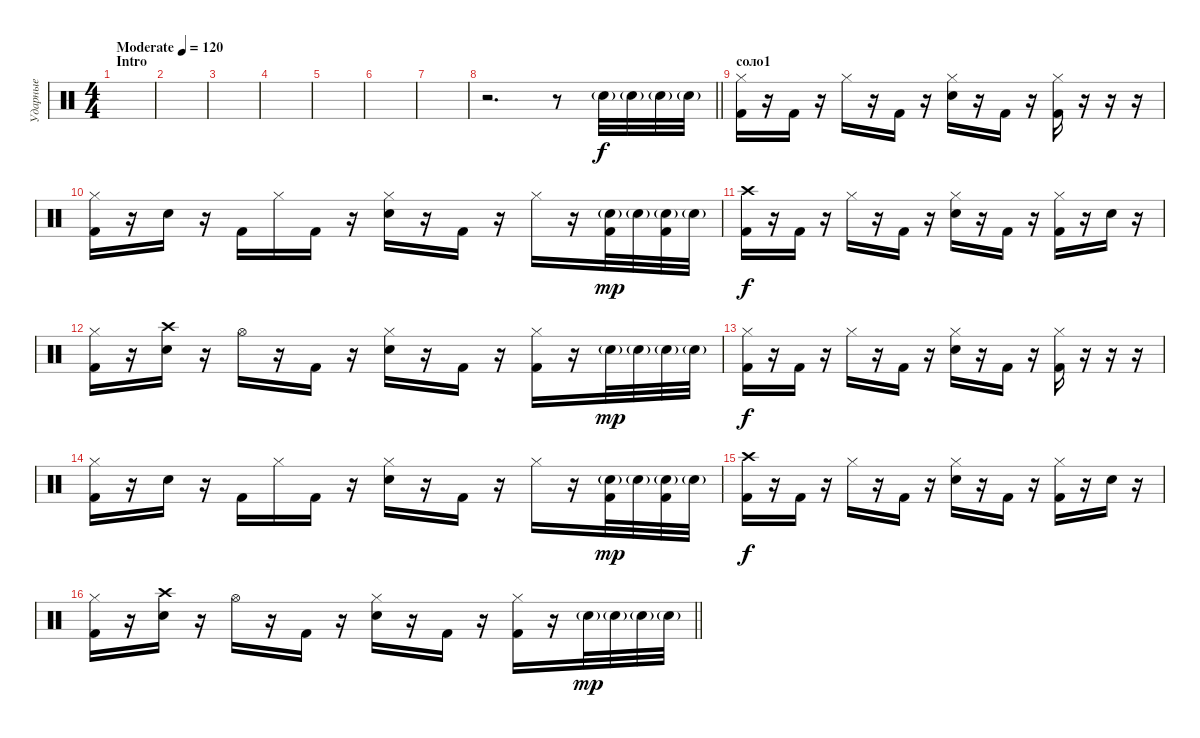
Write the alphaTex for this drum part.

\track ("Ударные" "Ударные") {instrument percussion}
\staff {score}
\articulation defaults
\ts (4 4)
\section ("" "Intro")
\tempo (120 "Moderate")
\clef neutral
\ks c
|
|
|
|
|
|
|
\barLineRight lightlight
r.2{d} r.8 "Electric Snare (hit)"{g}.32 "Electric Snare (hit)"{g}.32 "Electric Snare (hit)"{g}.32 "Electric Snare (hit)"{g}.32 |
\section ("" "соло1")
("Hi-Hat (closed)" "Kick (hit) 2").16{dy f} r.16 "Kick (hit) 2".16 r.16 "Hi-Hat (closed)".16 r.16 "Kick (hit) 2".16 r.16 ("Hi-Hat (closed)" "Electric Snare (hit)").16 r.16 "Kick (hit) 2".16 r.16 ("Hi-Hat (closed)" "Kick (hit) 2").16 r.16 r.16 r.16 |
("Hi-Hat (closed)" "Kick (hit) 2").16 r.16 "Electric Snare (hit)".16 r.16 "Kick (hit) 2".16 "Hi-Hat (closed)".16 "Kick (hit) 2".16 r.16 ("Hi-Hat (closed)" "Electric Snare (hit)").16 r.16 "Kick (hit) 2".16 r.16 "Hi-Hat (closed)".16 r.16 ("Electric Snare (hit)"{g} "Kick (hit) 2").32{dy mp} "Electric Snare (hit)"{g}.32 ("Electric Snare (hit)"{g} "Kick (hit) 2").32 "Electric Snare (hit)"{g}.32 |
("Crash high (hit)" "Kick (hit) 2").16{dy f} r.16 "Kick (hit) 2".16 r.16 "Hi-Hat (closed)".16 r.16 "Kick (hit) 2".16 r.16 ("Hi-Hat (closed)" "Electric Snare (hit)").16 r.16 "Kick (hit) 2".16 r.16 ("Hi-Hat (closed)" "Kick (hit) 2").16 r.16 "Electric Snare (hit)".16 r.16 |
("Hi-Hat (closed)" "Kick (hit) 2").16 r.16 ("Crash high (hit)" "Electric Snare (hit)").16 r.16 "Hi-Hat (open)".16 r.16 "Kick (hit) 2".16 r.16 ("Hi-Hat (closed)" "Electric Snare (hit)").16 r.16 "Kick (hit) 2".16 r.16 ("Hi-Hat (closed)" "Kick (hit) 2").16 r.16 "Electric Snare (hit)"{g}.32{dy mp} "Electric Snare (hit)"{g}.32 "Electric Snare (hit)"{g}.32 "Electric Snare (hit)"{g}.32 |
("Hi-Hat (closed)" "Kick (hit) 2").16{dy f} r.16 "Kick (hit) 2".16 r.16 "Hi-Hat (closed)".16 r.16 "Kick (hit) 2".16 r.16 ("Hi-Hat (closed)" "Electric Snare (hit)").16 r.16 "Kick (hit) 2".16 r.16 ("Hi-Hat (closed)" "Kick (hit) 2").16 r.16 r.16 r.16 |
("Hi-Hat (closed)" "Kick (hit) 2").16 r.16 "Electric Snare (hit)".16 r.16 "Kick (hit) 2".16 "Hi-Hat (closed)".16 "Kick (hit) 2".16 r.16 ("Hi-Hat (closed)" "Electric Snare (hit)").16 r.16 "Kick (hit) 2".16 r.16 "Hi-Hat (closed)".16 r.16 ("Electric Snare (hit)"{g} "Kick (hit) 2").32{dy mp} "Electric Snare (hit)"{g}.32 ("Electric Snare (hit)"{g} "Kick (hit) 2").32 "Electric Snare (hit)"{g}.32 |
("Crash high (hit)" "Kick (hit) 2").16{dy f} r.16 "Kick (hit) 2".16 r.16 "Hi-Hat (closed)".16 r.16 "Kick (hit) 2".16 r.16 ("Hi-Hat (closed)" "Electric Snare (hit)").16 r.16 "Kick (hit) 2".16 r.16 ("Hi-Hat (closed)" "Kick (hit) 2").16 r.16 "Electric Snare (hit)".16 r.16 |
\barLineRight lightlight
("Hi-Hat (closed)" "Kick (hit) 2").16 r.16 ("Crash high (hit)" "Electric Snare (hit)").16 r.16 "Hi-Hat (open)".16 r.16 "Kick (hit) 2".16 r.16 ("Hi-Hat (closed)" "Electric Snare (hit)").16 r.16 "Kick (hit) 2".16 r.16 ("Hi-Hat (closed)" "Kick (hit) 2").16 r.16 "Electric Snare (hit)"{g}.32{dy mp} "Electric Snare (hit)"{g}.32 "Electric Snare (hit)"{g}.32 "Electric Snare (hit)"{g}.32
